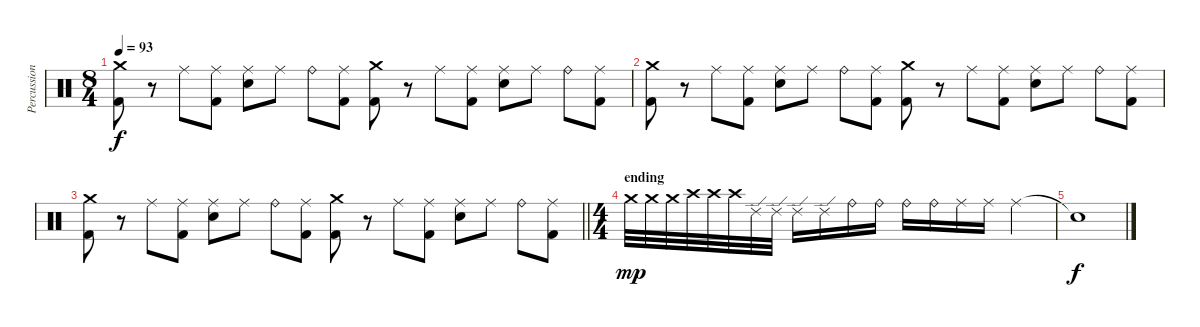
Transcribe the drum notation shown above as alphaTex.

\track ("Percussioni" "Percussion") {instrument percussion}
\staff {score}
\articulation defaults
\ts (8 4)
\tempo 93
\clef neutral
\ks c
("Kick (hit) 2" "Crash medium (hit)").8{dy f} r.8 "Ride (middle)".8 ("Kick (hit) 2" "Ride (middle)").8 ("Electric Snare (hit)" "Ride (middle)").8 "Ride (middle)".8 "Ride (bell)".8 ("Kick (hit) 2" "Ride (middle)").8 ("Kick (hit) 2" "Crash medium (hit)").8 r.8 "Ride (middle)".8 ("Kick (hit) 2" "Ride (middle)").8 ("Electric Snare (hit)" "Ride (middle)").8 "Ride (middle)".8 "Ride (bell)".8 ("Kick (hit) 2" "Ride (middle)").8 |
("Kick (hit) 2" "Crash medium (hit)").8 r.8 "Ride (middle)".8 ("Kick (hit) 2" "Ride (middle)").8 ("Electric Snare (hit)" "Ride (middle)").8 "Ride (middle)".8 "Ride (bell)".8 ("Kick (hit) 2" "Ride (middle)").8 ("Kick (hit) 2" "Crash medium (hit)").8 r.8 "Ride (middle)".8 ("Kick (hit) 2" "Ride (middle)").8 ("Electric Snare (hit)" "Ride (middle)").8 "Ride (middle)".8 "Ride (bell)".8 ("Kick (hit) 2" "Ride (middle)").8 |
\barLineRight lightlight
("Kick (hit) 2" "Crash medium (hit)").8 r.8 "Ride (middle)".8 ("Kick (hit) 2" "Ride (middle)").8 ("Electric Snare (hit)" "Ride (middle)").8 "Ride (middle)".8 "Ride (bell)".8 ("Kick (hit) 2" "Ride (middle)").8 ("Kick (hit) 2" "Crash medium (hit)").8 r.8 "Ride (middle)".8 ("Kick (hit) 2" "Ride (middle)").8 ("Electric Snare (hit)" "Ride (middle)").8 "Ride (middle)".8 "Ride (bell)".8 ("Kick (hit) 2" "Ride (middle)").8 |
\ts (4 4)
\section ("" "ending")
"Crash medium (hit)".32{dy mp} "Crash medium (hit)".32 "Crash medium (hit)".32 "Crash high (hit)".32 "Crash high (hit)".32 "Crash high (hit)".32 "Ride (edge) 2".32 "Ride (edge) 2".32 "Ride (edge) 2".16 "Ride (edge) 2".16 "Ride (bell)".16 "Ride (bell)".16 "Ride (bell)".16 "Ride (bell)".16 "Ride (middle)".16 "Ride (middle)".16 "Ride (middle)".4 |
"Snare (hit)"{t}.1{dy f}
